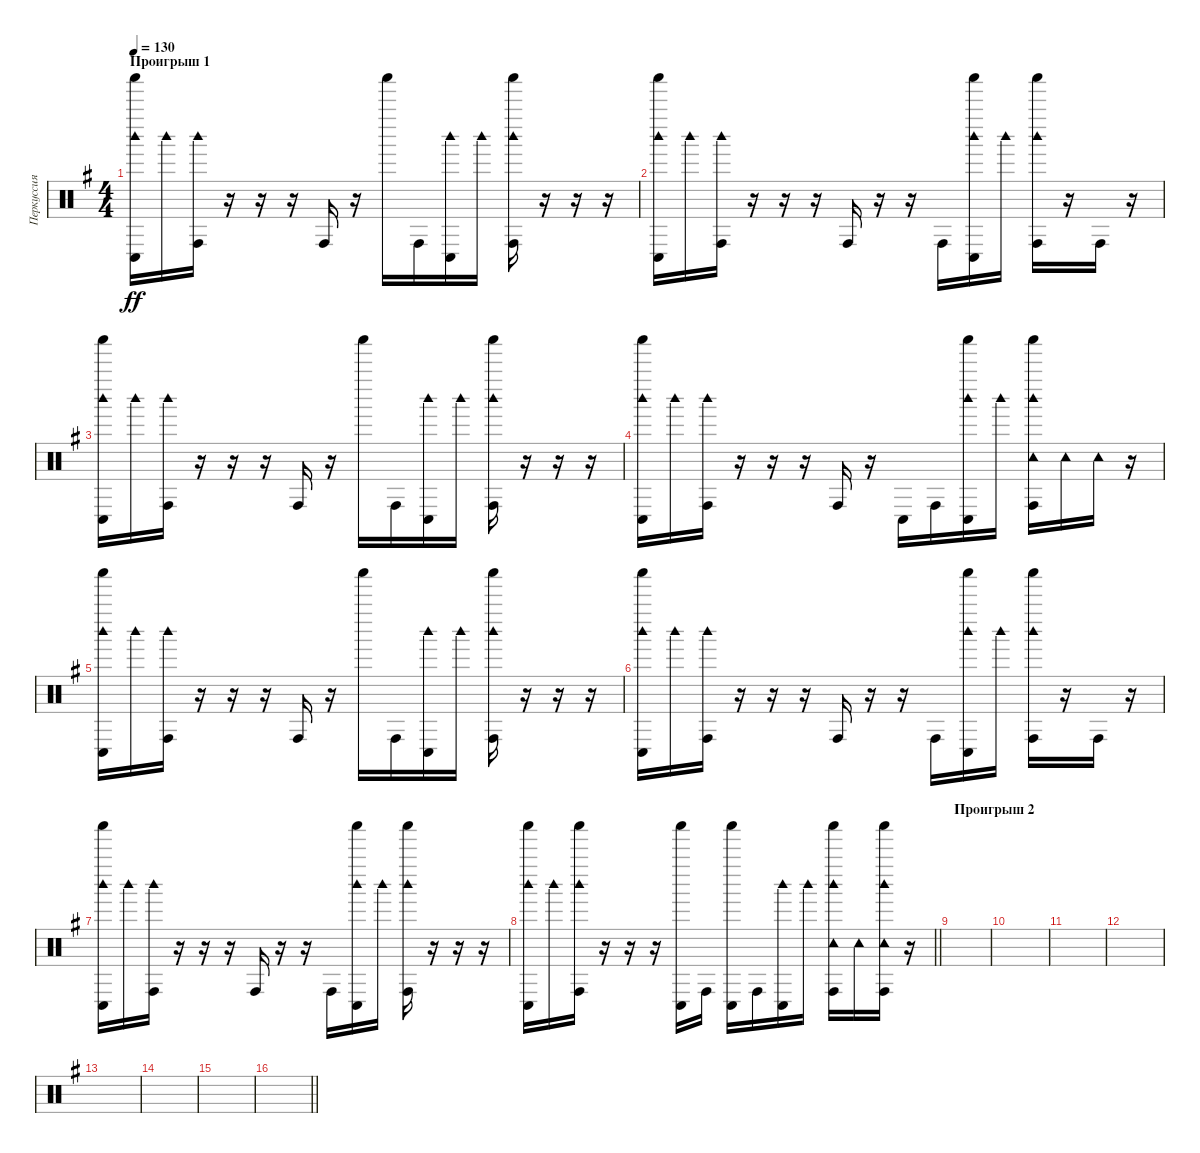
\track ("Перкуссия" "Перкуссия") {instrument percussion}
\staff {score}
\articulation defaults
\ts (4 4)
\section ("" "Проигрыш 1")
\tempo 130
\clef neutral
\ks eminor
("Shaker (hit)" "Woodblock high (hit)" "Conga low (hit)").16{dy ff} "Woodblock high (hit)".16 ("Woodblock high (hit)" "Conga high (hit)").16 r.16 r.16 r.16 "Conga high (hit)".16 r.16 "Shaker (hit)".16 "Conga high (hit)".16 ("Woodblock high (hit)" "Conga low (hit)").16 "Woodblock high (hit)".16 ("Shaker (hit)" "Woodblock high (hit)" "Conga high (hit)").16 r.16 r.16 r.16 |
("Shaker (hit)" "Woodblock high (hit)" "Conga low (hit)").16 "Woodblock high (hit)".16 ("Woodblock high (hit)" "Conga high (hit)").16 r.16 r.16 r.16 "Conga high (hit)".16 r.16 r.16 "Conga high (hit)".16 ("Shaker (hit)" "Woodblock high (hit)" "Conga low (hit)").16 "Woodblock high (hit)".16 ("Shaker (hit)" "Woodblock high (hit)" "Conga high (hit)").16 r.16 "Conga high (hit)".16 r.16 |
("Shaker (hit)" "Woodblock high (hit)" "Conga low (hit)").16 "Woodblock high (hit)".16 ("Woodblock high (hit)" "Conga high (hit)").16 r.16 r.16 r.16 "Conga high (hit)".16 r.16 "Shaker (hit)".16 "Conga high (hit)".16 ("Woodblock high (hit)" "Conga low (hit)").16 "Woodblock high (hit)".16 ("Shaker (hit)" "Woodblock high (hit)" "Conga high (hit)").16 r.16 r.16 r.16 |
("Shaker (hit)" "Woodblock high (hit)" "Conga low (hit)").16 "Woodblock high (hit)".16 ("Woodblock high (hit)" "Conga high (hit)").16 r.16 r.16 r.16 "Conga high (hit)".16 r.16 "Conga low (hit)".16 "Conga high (hit)".16 ("Shaker (hit)" "Woodblock high (hit)" "Conga low (hit)").16 "Woodblock high (hit)".16 ("Shaker (hit)" "Tambourine (hit)" "Woodblock high (hit)" "Conga high (hit)").16 "Tambourine (hit)".16 "Tambourine (hit)".16 r.16 |
("Shaker (hit)" "Woodblock high (hit)" "Conga low (hit)").16 "Woodblock high (hit)".16 ("Woodblock high (hit)" "Conga high (hit)").16 r.16 r.16 r.16 "Conga high (hit)".16 r.16 "Shaker (hit)".16 "Conga high (hit)".16 ("Woodblock high (hit)" "Conga low (hit)").16 "Woodblock high (hit)".16 ("Shaker (hit)" "Woodblock high (hit)" "Conga high (hit)").16 r.16 r.16 r.16 |
("Shaker (hit)" "Woodblock high (hit)" "Conga low (hit)").16 "Woodblock high (hit)".16 ("Woodblock high (hit)" "Conga high (hit)").16 r.16 r.16 r.16 "Conga high (hit)".16 r.16 r.16 "Conga high (hit)".16 ("Shaker (hit)" "Woodblock high (hit)" "Conga low (hit)").16 "Woodblock high (hit)".16 ("Shaker (hit)" "Woodblock high (hit)" "Conga high (hit)").16 r.16 "Conga high (hit)".16 r.16 |
("Shaker (hit)" "Woodblock high (hit)" "Conga low (hit)").16 "Woodblock high (hit)".16 ("Woodblock high (hit)" "Conga high (hit)").16 r.16 r.16 r.16 "Conga high (hit)".16 r.16 r.16 "Conga high (hit)".16 ("Shaker (hit)" "Woodblock high (hit)" "Conga low (hit)").16 "Woodblock high (hit)".16 ("Shaker (hit)" "Woodblock high (hit)" "Conga high (hit)").16 r.16 r.16 r.16 |
\barLineRight lightlight
("Shaker (hit)" "Woodblock high (hit)" "Conga low (hit)").16 "Woodblock high (hit)".16 ("Shaker (hit)" "Woodblock high (hit)" "Conga high (hit)").16 r.16 r.16 r.16 ("Shaker (hit)" "Conga low (hit)").16 "Conga high (hit)".16 ("Shaker (hit)" "Conga low (hit)").16 "Conga high (hit)".16 ("Woodblock high (hit)" "Conga low (hit)").16 "Woodblock high (hit)".16 ("Shaker (hit)" "Tambourine (hit)" "Woodblock high (hit)" "Conga high (hit)").16 "Tambourine (hit)".16 ("Shaker (hit)" "Tambourine (hit)" "Woodblock high (hit)" "Conga high (hit)").16 r.16 |
\section ("" "Проигрыш 2")
|
|
|
|
|
|
|
\barLineRight lightlight
